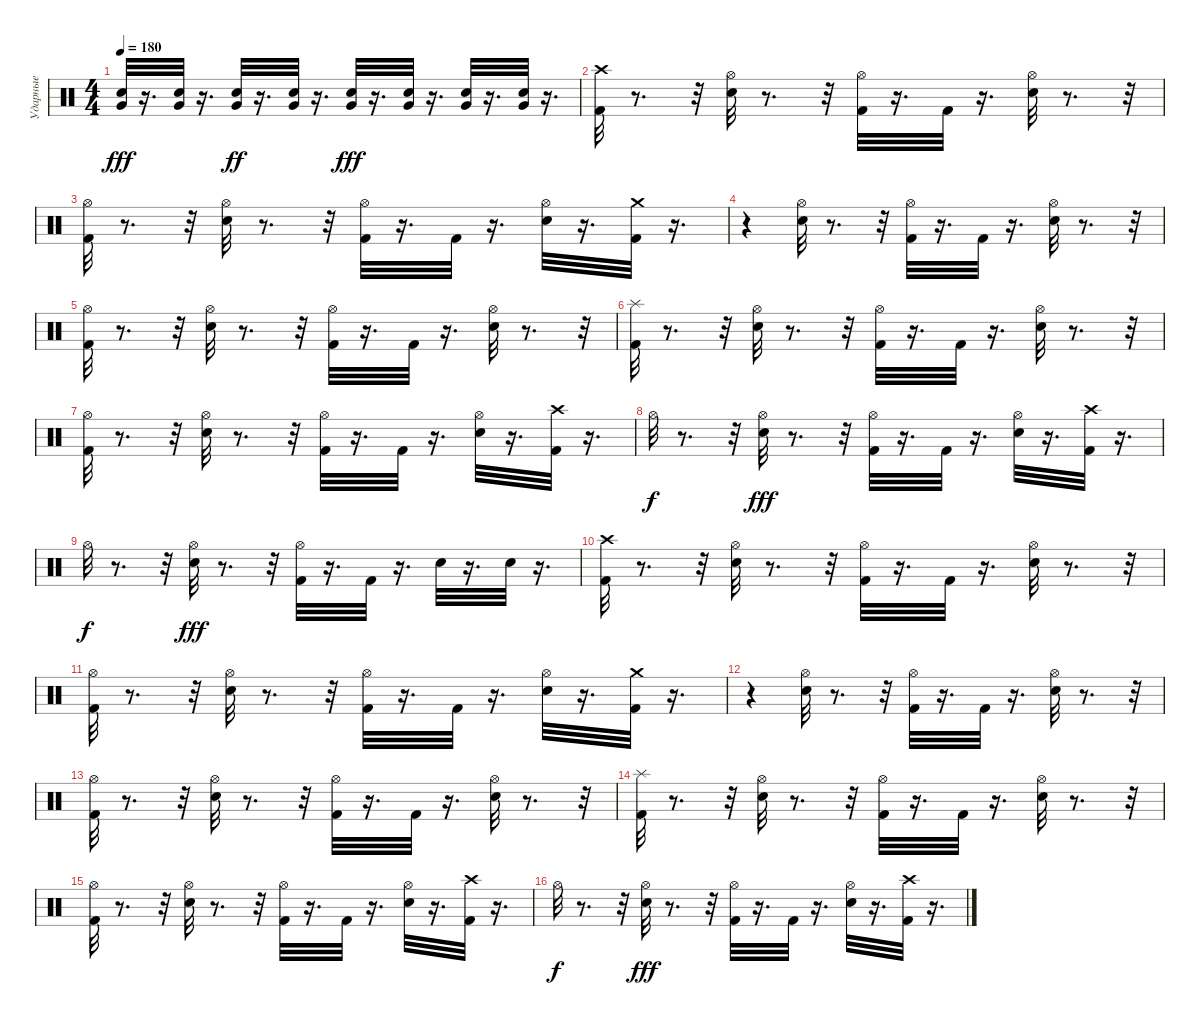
\track ("Ударные" "Ударные") {instrument percussion}
\staff {score}
\articulation defaults
\ts (4 4)
\tempo 180
\clef neutral
\ks c
("Very Low Tom (hit)" "Snare (hit) 2").32{dy fff} r.16{d} ("Snare (hit) 2" "Very Low Tom (hit)").32 r.16{d} ("Snare (hit) 2" "Very Low Tom (hit)").32{dy ff} r.16{d} ("Snare (hit) 2" "Very Low Tom (hit)").32 r.16{d} ("Very Low Tom (hit)" "Snare (hit) 2").32{dy fff} r.16{d} ("Snare (hit) 2" "Very Low Tom (hit)").32 r.16{d} ("Very Low Tom (hit)" "Snare (hit) 2").32 r.16{d} ("Very Low Tom (hit)" "Snare (hit) 2").32 r.16{d} |
("Crash high (hit)" "Kick (hit) 2").32 r.8{d} r.32 ("Snare (hit) 2" "Hi-Hat (open)").32 r.8{d} r.32 ("Hi-Hat (open)" "Kick (hit) 2").32 r.16{d} "Kick (hit) 2".32 r.16{d} ("Hi-Hat (open)" "Snare (hit) 2").32 r.8{d} r.32 |
("Hi-Hat (open)" "Kick (hit) 2").32 r.8{d} r.32 ("Snare (hit) 2" "Hi-Hat (open)").32 r.8{d} r.32 ("Kick (hit) 2" "Hi-Hat (open)").32 r.16{d} "Kick (hit) 2".32 r.16{d} ("Hi-Hat (open)" "Snare (hit) 2").32 r.16{d} ("Kick (hit) 2" "Crash medium (hit)").32 r.16{d} |
r.4 ("Hi-Hat (open)" "Snare (hit) 2").32 r.8{d} r.32 ("Kick (hit) 2" "Hi-Hat (open)").32 r.16{d} "Kick (hit) 2".32 r.16{d} ("Hi-Hat (open)" "Snare (hit) 2").32 r.8{d} r.32 |
("Hi-Hat (open)" "Kick (hit) 2").32 r.8{d} r.32 ("Snare (hit) 2" "Hi-Hat (open)").32 r.8{d} r.32 ("Hi-Hat (open)" "Kick (hit) 2").32 r.16{d} "Kick (hit) 2".32 r.16{d} ("Snare (hit) 2" "Hi-Hat (open)").32 r.8{d} r.32 |
("Splash (hit)" "Kick (hit) 2").32 r.8{d} r.32 ("Hi-Hat (open)" "Snare (hit) 2").32 r.8{d} r.32 ("Hi-Hat (open)" "Kick (hit) 2").32 r.16{d} "Kick (hit) 2".32 r.16{d} ("Snare (hit) 2" "Hi-Hat (open)").32 r.8{d} r.32 |
("Kick (hit) 2" "Hi-Hat (open)").32 r.8{d} r.32 ("Snare (hit) 2" "Hi-Hat (open)").32 r.8{d} r.32 ("Hi-Hat (open)" "Kick (hit) 2").32 r.16{d} "Kick (hit) 2".32 r.16{d} ("Snare (hit) 2" "Hi-Hat (open)").32 r.16{d} ("Kick (hit) 2" "Crash high (hit)").32 r.16{d} |
"Hi-Hat (open)".32{dy f} r.8{d} r.32 ("Hi-Hat (open)" "Snare (hit) 2").32{dy fff} r.8{d} r.32 ("Hi-Hat (open)" "Kick (hit) 2").32 r.16{d} "Kick (hit) 2".32 r.16{d} ("Snare (hit) 2" "Hi-Hat (open)").32 r.16{d} ("Crash high (hit)" "Kick (hit) 2").32 r.16{d} |
"Hi-Hat (open)".32{dy f} r.8{d} r.32 ("Hi-Hat (open)" "Snare (hit) 2").32{dy fff} r.8{d} r.32 ("Hi-Hat (open)" "Kick (hit) 2").32 r.16{d} "Kick (hit) 2".32 r.16{d} "Snare (hit) 2".32 r.16{d} "Snare (hit) 2".32 r.16{d} |
("Crash high (hit)" "Kick (hit) 2").32 r.8{d} r.32 ("Hi-Hat (open)" "Snare (hit) 2").32 r.8{d} r.32 ("Hi-Hat (open)" "Kick (hit) 2").32 r.16{d} "Kick (hit) 2".32 r.16{d} ("Hi-Hat (open)" "Snare (hit) 2").32 r.8{d} r.32 |
("Kick (hit) 2" "Hi-Hat (open)").32 r.8{d} r.32 ("Snare (hit) 2" "Hi-Hat (open)").32 r.8{d} r.32 ("Kick (hit) 2" "Hi-Hat (open)").32 r.16{d} "Kick (hit) 2".32 r.16{d} ("Hi-Hat (open)" "Snare (hit) 2").32 r.16{d} ("Crash medium (hit)" "Kick (hit) 2").32 r.16{d} |
r.4 ("Hi-Hat (open)" "Snare (hit) 2").32 r.8{d} r.32 ("Kick (hit) 2" "Hi-Hat (open)").32 r.16{d} "Kick (hit) 2".32 r.16{d} ("Hi-Hat (open)" "Snare (hit) 2").32 r.8{d} r.32 |
("Kick (hit) 2" "Hi-Hat (open)").32 r.8{d} r.32 ("Snare (hit) 2" "Hi-Hat (open)").32 r.8{d} r.32 ("Kick (hit) 2" "Hi-Hat (open)").32 r.16{d} "Kick (hit) 2".32 r.16{d} ("Snare (hit) 2" "Hi-Hat (open)").32 r.8{d} r.32 |
("Splash (hit)" "Kick (hit) 2").32 r.8{d} r.32 ("Snare (hit) 2" "Hi-Hat (open)").32 r.8{d} r.32 ("Hi-Hat (open)" "Kick (hit) 2").32 r.16{d} "Kick (hit) 2".32 r.16{d} ("Hi-Hat (open)" "Snare (hit) 2").32 r.8{d} r.32 |
("Kick (hit) 2" "Hi-Hat (open)").32 r.8{d} r.32 ("Snare (hit) 2" "Hi-Hat (open)").32 r.8{d} r.32 ("Hi-Hat (open)" "Kick (hit) 2").32 r.16{d} "Kick (hit) 2".32 r.16{d} ("Hi-Hat (open)" "Snare (hit) 2").32 r.16{d} ("Crash high (hit)" "Kick (hit) 2").32 r.16{d} |
"Hi-Hat (open)".32{dy f} r.8{d} r.32 ("Snare (hit) 2" "Hi-Hat (open)").32{dy fff} r.8{d} r.32 ("Hi-Hat (open)" "Kick (hit) 2").32 r.16{d} "Kick (hit) 2".32 r.16{d} ("Hi-Hat (open)" "Snare (hit) 2").32 r.16{d} ("Crash high (hit)" "Kick (hit) 2").32 r.16{d}
